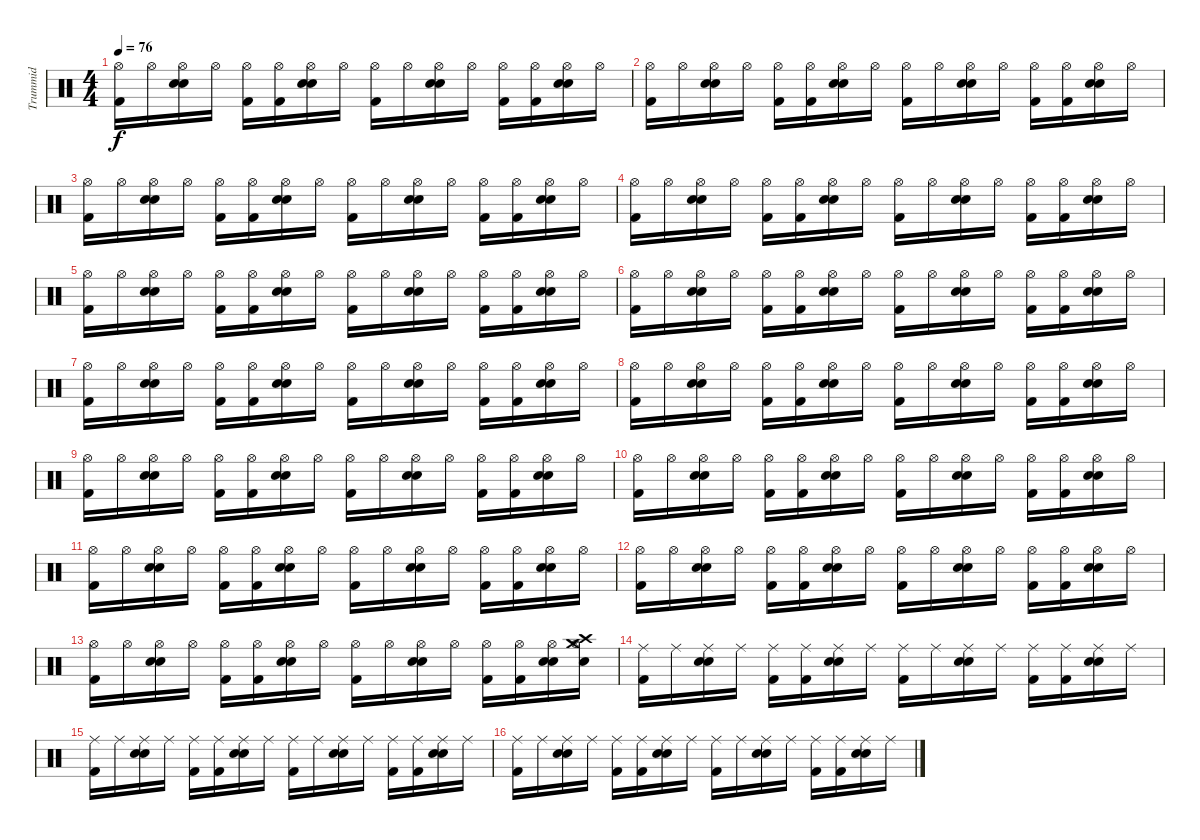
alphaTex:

\track ("Trummid" "Trummid") {instrument percussion}
\staff {score}
\articulation defaults
\ts (4 4)
\tempo 76
\clef neutral
\ks c
("Hi-Hat (open)" "Kick (hit) 2").16{dy f} "Hi-Hat (open)".16 ("Hi-Hat (open)" "Electric Snare (hit)" "Snare (hit) 2").16 "Hi-Hat (open)".16 ("Hi-Hat (open)" "Kick (hit) 2").16 ("Hi-Hat (open)" "Kick (hit) 2").16 ("Hi-Hat (open)" "Electric Snare (hit)" "Snare (hit) 2").16 "Hi-Hat (open)".16 ("Hi-Hat (open)" "Kick (hit) 2").16 "Hi-Hat (open)".16 ("Hi-Hat (open)" "Electric Snare (hit)" "Snare (hit) 2").16 "Hi-Hat (open)".16 ("Hi-Hat (open)" "Kick (hit) 2").16 ("Hi-Hat (open)" "Kick (hit) 2").16 ("Hi-Hat (open)" "Electric Snare (hit)" "Snare (hit) 2").16 "Hi-Hat (open)".16 |
("Hi-Hat (open)" "Kick (hit) 2").16 "Hi-Hat (open)".16 ("Hi-Hat (open)" "Electric Snare (hit)" "Snare (hit) 2").16 "Hi-Hat (open)".16 ("Hi-Hat (open)" "Kick (hit) 2").16 ("Hi-Hat (open)" "Kick (hit) 2").16 ("Hi-Hat (open)" "Electric Snare (hit)" "Snare (hit) 2").16 "Hi-Hat (open)".16 ("Hi-Hat (open)" "Kick (hit) 2").16 "Hi-Hat (open)".16 ("Hi-Hat (open)" "Electric Snare (hit)" "Snare (hit) 2").16 "Hi-Hat (open)".16 ("Hi-Hat (open)" "Kick (hit) 2").16 ("Hi-Hat (open)" "Kick (hit) 2").16 ("Hi-Hat (open)" "Electric Snare (hit)" "Snare (hit) 2").16 "Hi-Hat (open)".16 |
("Hi-Hat (open)" "Kick (hit) 2").16 "Hi-Hat (open)".16 ("Hi-Hat (open)" "Electric Snare (hit)" "Snare (hit) 2").16 "Hi-Hat (open)".16 ("Hi-Hat (open)" "Kick (hit) 2").16 ("Hi-Hat (open)" "Kick (hit) 2").16 ("Hi-Hat (open)" "Electric Snare (hit)" "Snare (hit) 2").16 "Hi-Hat (open)".16 ("Hi-Hat (open)" "Kick (hit) 2").16 "Hi-Hat (open)".16 ("Hi-Hat (open)" "Electric Snare (hit)" "Snare (hit) 2").16 "Hi-Hat (open)".16 ("Hi-Hat (open)" "Kick (hit) 2").16 ("Hi-Hat (open)" "Kick (hit) 2").16 ("Hi-Hat (open)" "Electric Snare (hit)" "Snare (hit) 2").16 "Hi-Hat (open)".16 |
("Hi-Hat (open)" "Kick (hit) 2").16 "Hi-Hat (open)".16 ("Hi-Hat (open)" "Electric Snare (hit)" "Snare (hit) 2").16 "Hi-Hat (open)".16 ("Hi-Hat (open)" "Kick (hit) 2").16 ("Hi-Hat (open)" "Kick (hit) 2").16 ("Hi-Hat (open)" "Electric Snare (hit)" "Snare (hit) 2").16 "Hi-Hat (open)".16 ("Hi-Hat (open)" "Kick (hit) 2").16 "Hi-Hat (open)".16 ("Hi-Hat (open)" "Electric Snare (hit)" "Snare (hit) 2").16 "Hi-Hat (open)".16 ("Hi-Hat (open)" "Kick (hit) 2").16 ("Hi-Hat (open)" "Kick (hit) 2").16 ("Hi-Hat (open)" "Electric Snare (hit)" "Snare (hit) 2").16 "Hi-Hat (open)".16 |
("Hi-Hat (open)" "Kick (hit) 2").16 "Hi-Hat (open)".16 ("Hi-Hat (open)" "Electric Snare (hit)" "Snare (hit) 2").16 "Hi-Hat (open)".16 ("Hi-Hat (open)" "Kick (hit) 2").16 ("Hi-Hat (open)" "Kick (hit) 2").16 ("Hi-Hat (open)" "Electric Snare (hit)" "Snare (hit) 2").16 "Hi-Hat (open)".16 ("Hi-Hat (open)" "Kick (hit) 2").16 "Hi-Hat (open)".16 ("Hi-Hat (open)" "Electric Snare (hit)" "Snare (hit) 2").16 "Hi-Hat (open)".16 ("Hi-Hat (open)" "Kick (hit) 2").16 ("Hi-Hat (open)" "Kick (hit) 2").16 ("Hi-Hat (open)" "Electric Snare (hit)" "Snare (hit) 2").16 "Hi-Hat (open)".16 |
("Hi-Hat (open)" "Kick (hit) 2").16 "Hi-Hat (open)".16 ("Hi-Hat (open)" "Electric Snare (hit)" "Snare (hit) 2").16 "Hi-Hat (open)".16 ("Hi-Hat (open)" "Kick (hit) 2").16 ("Hi-Hat (open)" "Kick (hit) 2").16 ("Hi-Hat (open)" "Electric Snare (hit)" "Snare (hit) 2").16 "Hi-Hat (open)".16 ("Hi-Hat (open)" "Kick (hit) 2").16 "Hi-Hat (open)".16 ("Hi-Hat (open)" "Electric Snare (hit)" "Snare (hit) 2").16 "Hi-Hat (open)".16 ("Hi-Hat (open)" "Kick (hit) 2").16 ("Hi-Hat (open)" "Kick (hit) 2").16 ("Hi-Hat (open)" "Electric Snare (hit)" "Snare (hit) 2").16 "Hi-Hat (open)".16 |
("Hi-Hat (open)" "Kick (hit) 2").16 "Hi-Hat (open)".16 ("Hi-Hat (open)" "Electric Snare (hit)" "Snare (hit) 2").16 "Hi-Hat (open)".16 ("Hi-Hat (open)" "Kick (hit) 2").16 ("Hi-Hat (open)" "Kick (hit) 2").16 ("Hi-Hat (open)" "Electric Snare (hit)" "Snare (hit) 2").16 "Hi-Hat (open)".16 ("Hi-Hat (open)" "Kick (hit) 2").16 "Hi-Hat (open)".16 ("Hi-Hat (open)" "Electric Snare (hit)" "Snare (hit) 2").16 "Hi-Hat (open)".16 ("Hi-Hat (open)" "Kick (hit) 2").16 ("Hi-Hat (open)" "Kick (hit) 2").16 ("Hi-Hat (open)" "Electric Snare (hit)" "Snare (hit) 2").16 "Hi-Hat (open)".16 |
("Hi-Hat (open)" "Kick (hit) 2").16 "Hi-Hat (open)".16 ("Hi-Hat (open)" "Electric Snare (hit)" "Snare (hit) 2").16 "Hi-Hat (open)".16 ("Hi-Hat (open)" "Kick (hit) 2").16 ("Hi-Hat (open)" "Kick (hit) 2").16 ("Hi-Hat (open)" "Electric Snare (hit)" "Snare (hit) 2").16 "Hi-Hat (open)".16 ("Hi-Hat (open)" "Kick (hit) 2").16 "Hi-Hat (open)".16 ("Hi-Hat (open)" "Electric Snare (hit)" "Snare (hit) 2").16 "Hi-Hat (open)".16 ("Hi-Hat (open)" "Kick (hit) 2").16 ("Hi-Hat (open)" "Kick (hit) 2").16 ("Hi-Hat (open)" "Electric Snare (hit)" "Snare (hit) 2").16 "Hi-Hat (open)".16 |
("Hi-Hat (open)" "Kick (hit) 2").16 "Hi-Hat (open)".16 ("Hi-Hat (open)" "Electric Snare (hit)" "Snare (hit) 2").16 "Hi-Hat (open)".16 ("Hi-Hat (open)" "Kick (hit) 2").16 ("Hi-Hat (open)" "Kick (hit) 2").16 ("Hi-Hat (open)" "Electric Snare (hit)" "Snare (hit) 2").16 "Hi-Hat (open)".16 ("Hi-Hat (open)" "Kick (hit) 2").16 "Hi-Hat (open)".16 ("Hi-Hat (open)" "Electric Snare (hit)" "Snare (hit) 2").16 "Hi-Hat (open)".16 ("Hi-Hat (open)" "Kick (hit) 2").16 ("Hi-Hat (open)" "Kick (hit) 2").16 ("Hi-Hat (open)" "Electric Snare (hit)" "Snare (hit) 2").16 "Hi-Hat (open)".16 |
("Hi-Hat (open)" "Kick (hit) 2").16 "Hi-Hat (open)".16 ("Hi-Hat (open)" "Electric Snare (hit)" "Snare (hit) 2").16 "Hi-Hat (open)".16 ("Hi-Hat (open)" "Kick (hit) 2").16 ("Hi-Hat (open)" "Kick (hit) 2").16 ("Hi-Hat (open)" "Electric Snare (hit)" "Snare (hit) 2").16 "Hi-Hat (open)".16 ("Hi-Hat (open)" "Kick (hit) 2").16 "Hi-Hat (open)".16 ("Hi-Hat (open)" "Electric Snare (hit)" "Snare (hit) 2").16 "Hi-Hat (open)".16 ("Hi-Hat (open)" "Kick (hit) 2").16 ("Hi-Hat (open)" "Kick (hit) 2").16 ("Hi-Hat (open)" "Electric Snare (hit)" "Snare (hit) 2").16 "Hi-Hat (open)".16 |
("Hi-Hat (open)" "Kick (hit) 2").16 "Hi-Hat (open)".16 ("Hi-Hat (open)" "Electric Snare (hit)" "Snare (hit) 2").16 "Hi-Hat (open)".16 ("Hi-Hat (open)" "Kick (hit) 2").16 ("Hi-Hat (open)" "Kick (hit) 2").16 ("Hi-Hat (open)" "Electric Snare (hit)" "Snare (hit) 2").16 "Hi-Hat (open)".16 ("Hi-Hat (open)" "Kick (hit) 2").16 "Hi-Hat (open)".16 ("Hi-Hat (open)" "Electric Snare (hit)" "Snare (hit) 2").16 "Hi-Hat (open)".16 ("Hi-Hat (open)" "Kick (hit) 2").16 ("Hi-Hat (open)" "Kick (hit) 2").16 ("Hi-Hat (open)" "Electric Snare (hit)" "Snare (hit) 2").16 "Hi-Hat (open)".16 |
("Hi-Hat (open)" "Kick (hit) 2").16 "Hi-Hat (open)".16 ("Hi-Hat (open)" "Electric Snare (hit)" "Snare (hit) 2").16 "Hi-Hat (open)".16 ("Hi-Hat (open)" "Kick (hit) 2").16 ("Hi-Hat (open)" "Kick (hit) 2").16 ("Hi-Hat (open)" "Electric Snare (hit)" "Snare (hit) 2").16 "Hi-Hat (open)".16 ("Hi-Hat (open)" "Kick (hit) 2").16 "Hi-Hat (open)".16 ("Hi-Hat (open)" "Electric Snare (hit)" "Snare (hit) 2").16 "Hi-Hat (open)".16 ("Hi-Hat (open)" "Kick (hit) 2").16 ("Hi-Hat (open)" "Kick (hit) 2").16 ("Hi-Hat (open)" "Electric Snare (hit)" "Snare (hit) 2").16 "Hi-Hat (open)".16 |
("Hi-Hat (open)" "Kick (hit) 2").16 "Hi-Hat (open)".16 ("Hi-Hat (open)" "Electric Snare (hit)" "Snare (hit) 2").16 "Hi-Hat (open)".16 ("Hi-Hat (open)" "Kick (hit) 2").16 ("Hi-Hat (open)" "Kick (hit) 2").16 ("Hi-Hat (open)" "Electric Snare (hit)" "Snare (hit) 2").16 "Hi-Hat (open)".16 ("Hi-Hat (open)" "Kick (hit) 2").16 "Hi-Hat (open)".16 ("Hi-Hat (open)" "Electric Snare (hit)" "Snare (hit) 2").16 "Hi-Hat (open)".16 ("Hi-Hat (open)" "Kick (hit) 2").16 ("Hi-Hat (open)" "Kick (hit) 2").16 ("Hi-Hat (open)" "Electric Snare (hit)" "Snare (hit) 2").16 ("Hi-Hat (open)" "Crash medium (hit)" "Crash high (hit)" "Electric Snare (hit)").16 |
("Ride (middle)" "Kick (hit) 2").16 "Ride (middle)".16 ("Ride (middle)" "Electric Snare (hit)" "Snare (hit) 2").16 "Ride (middle)".16 ("Ride (middle)" "Kick (hit) 2").16 ("Ride (middle)" "Kick (hit) 2").16 ("Ride (middle)" "Electric Snare (hit)" "Snare (hit) 2").16 "Ride (middle)".16 ("Ride (middle)" "Kick (hit) 2").16 "Ride (middle)".16 ("Ride (middle)" "Electric Snare (hit)" "Snare (hit) 2").16 "Ride (middle)".16 ("Ride (middle)" "Kick (hit) 2").16 ("Ride (middle)" "Kick (hit) 2").16 ("Ride (middle)" "Electric Snare (hit)" "Snare (hit) 2").16 "Ride (middle)".16 |
("Ride (middle)" "Kick (hit) 2").16 "Ride (middle)".16 ("Ride (middle)" "Electric Snare (hit)" "Snare (hit) 2").16 "Ride (middle)".16 ("Ride (middle)" "Kick (hit) 2").16 ("Ride (middle)" "Kick (hit) 2").16 ("Ride (middle)" "Electric Snare (hit)" "Snare (hit) 2").16 "Ride (middle)".16 ("Ride (middle)" "Kick (hit) 2").16 "Ride (middle)".16 ("Ride (middle)" "Electric Snare (hit)" "Snare (hit) 2").16 "Ride (middle)".16 ("Ride (middle)" "Kick (hit) 2").16 ("Ride (middle)" "Kick (hit) 2").16 ("Ride (middle)" "Electric Snare (hit)" "Snare (hit) 2").16 "Ride (middle)".16 |
("Ride (middle)" "Kick (hit) 2").16 "Ride (middle)".16 ("Ride (middle)" "Electric Snare (hit)" "Snare (hit) 2").16 "Ride (middle)".16 ("Ride (middle)" "Kick (hit) 2").16 ("Ride (middle)" "Kick (hit) 2").16 ("Ride (middle)" "Electric Snare (hit)" "Snare (hit) 2").16 "Ride (middle)".16 ("Ride (middle)" "Kick (hit) 2").16 "Ride (middle)".16 ("Ride (middle)" "Electric Snare (hit)" "Snare (hit) 2").16 "Ride (middle)".16 ("Ride (middle)" "Kick (hit) 2").16 ("Ride (middle)" "Kick (hit) 2").16 ("Ride (middle)" "Electric Snare (hit)" "Snare (hit) 2").16 "Ride (middle)".16
